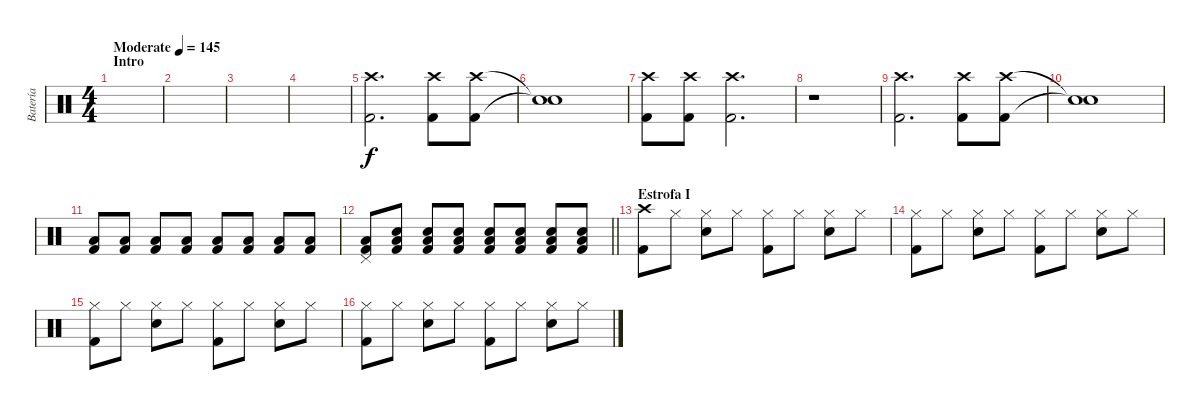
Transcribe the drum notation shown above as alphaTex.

\track ("Batería" "Batería") {instrument percussion}
\staff {score}
\articulation defaults
\ts (4 4)
\section ("" "Intro")
\tempo (145 "Moderate")
\clef neutral
\ks c
|
|
|
|
("Crash high (hit)" "Kick (hit) 2").2{d} ("Crash high (hit)" "Kick (hit) 2").8 ("Crash high (hit)" "Kick (hit) 2").8 |
("Snare (hit)"{t} "Snare (hit)"{t}).1 |
("Crash high (hit)" "Kick (hit) 2").8 ("Crash high (hit)" "Kick (hit) 2").8 ("Crash high (hit)" "Kick (hit) 2").2{d} |
r.1 |
("Crash high (hit)" "Kick (hit) 2").2{d} ("Crash high (hit)" "Kick (hit) 2").8 ("Crash high (hit)" "Kick (hit) 2").8 |
("Snare (hit)"{t} "Snare (hit)"{t}).1 |
("Low Tom (hit)" "Kick (hit) 2").8 ("Low Tom (hit)" "Kick (hit) 2").8 ("Low Tom (hit)" "Kick (hit) 2").8 ("Low Tom (hit)" "Kick (hit) 2").8 ("Low Tom (hit)" "Kick (hit) 2").8 ("Low Tom (hit)" "Kick (hit) 2").8 ("Low Tom (hit)" "Kick (hit) 2").8 ("Low Tom (hit)" "Kick (hit) 2").8 |
\barLineRight lightlight
("Pedal Hi-Hat (hit)" "Low Tom (hit)" "Kick (hit) 2").8 ("Snare (hit) 2" "Low Tom (hit)" "Kick (hit) 2").8 ("Snare (hit) 2" "Low Tom (hit)" "Kick (hit) 2").8 ("Snare (hit) 2" "Low Tom (hit)" "Kick (hit) 2").8 ("Snare (hit) 2" "Low Tom (hit)" "Kick (hit) 2").8 ("Snare (hit) 2" "Low Tom (hit)" "Kick (hit) 2").8 ("Snare (hit) 2" "Low Tom (hit)" "Kick (hit) 2").8 ("Snare (hit) 2" "Low Tom (hit)" "Kick (hit) 2").8 |
\section ("" "Estrofa I")
("Crash high (hit)" "Kick (hit) 2").8 "Hi-Hat (closed)".8 ("Hi-Hat (closed)" "Snare (hit) 2").8 "Hi-Hat (closed)".8 ("Hi-Hat (closed)" "Kick (hit) 2").8 "Hi-Hat (closed)".8 ("Hi-Hat (closed)" "Snare (hit) 2").8 "Hi-Hat (closed)".8 |
("Hi-Hat (closed)" "Kick (hit) 2").8 "Hi-Hat (closed)".8 ("Hi-Hat (closed)" "Snare (hit) 2").8 "Hi-Hat (closed)".8 ("Hi-Hat (closed)" "Kick (hit) 2").8 "Hi-Hat (closed)".8 ("Hi-Hat (closed)" "Snare (hit) 2").8 "Hi-Hat (closed)".8 |
("Hi-Hat (closed)" "Kick (hit) 2").8 "Hi-Hat (closed)".8 ("Hi-Hat (closed)" "Snare (hit) 2").8 "Hi-Hat (closed)".8 ("Hi-Hat (closed)" "Kick (hit) 2").8 "Hi-Hat (closed)".8 ("Hi-Hat (closed)" "Snare (hit) 2").8 "Hi-Hat (closed)".8 |
("Hi-Hat (closed)" "Kick (hit) 2").8 "Hi-Hat (closed)".8 ("Hi-Hat (closed)" "Snare (hit) 2").8 "Hi-Hat (closed)".8 ("Hi-Hat (closed)" "Kick (hit) 2").8 "Hi-Hat (closed)".8 ("Hi-Hat (closed)" "Snare (hit) 2").8 "Hi-Hat (closed)".8
